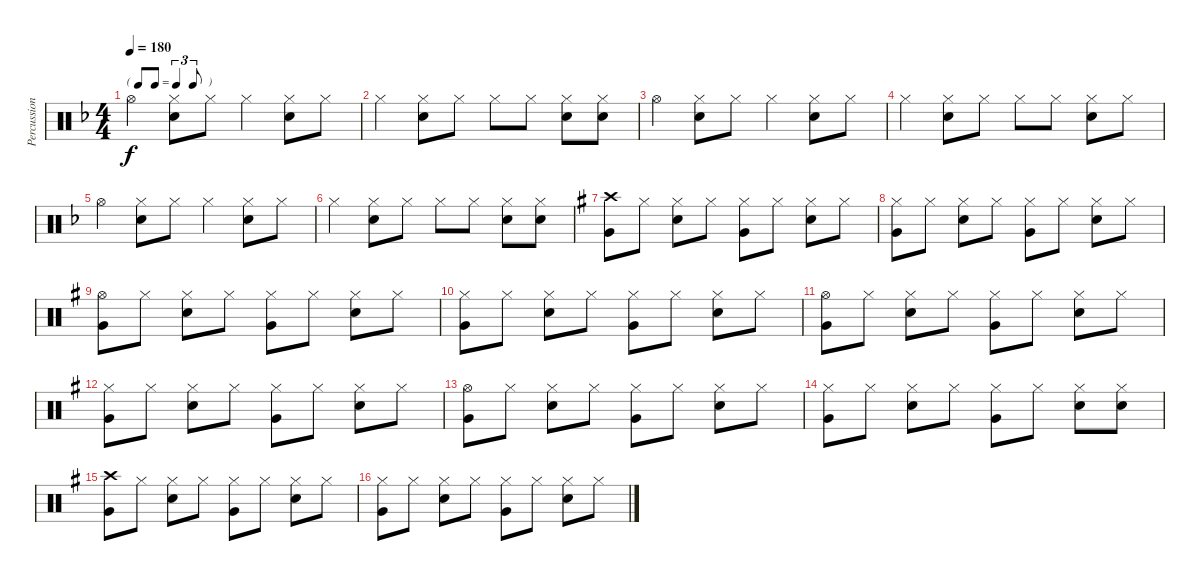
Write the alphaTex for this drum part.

\track ("Percussion" "Percussion") {instrument percussion}
\staff {score}
\articulation defaults
\ts (4 4)
\tf triplet8th
\tempo 180
\clef neutral
\ks f "Hi-Hat (open)".4{dy f}
("Hi-Hat (closed)" "Snare (hit) 2").8 "Hi-Hat (closed)".8 "Hi-Hat (closed)".4 ("Hi-Hat (closed)" "Snare (hit) 2").8 "Hi-Hat (closed)".8 |
"Hi-Hat (closed)".4 ("Hi-Hat (closed)" "Snare (hit) 2").8 "Hi-Hat (closed)".8 "Hi-Hat (closed)".8 "Hi-Hat (closed)".8 ("Hi-Hat (closed)" "Snare (hit) 2").8 ("Hi-Hat (closed)" "Snare (hit) 2").8 |
"Hi-Hat (open)".4 ("Hi-Hat (closed)" "Snare (hit) 2").8 "Hi-Hat (closed)".8 "Hi-Hat (closed)".4 ("Hi-Hat (closed)" "Snare (hit) 2").8 "Hi-Hat (closed)".8 |
"Hi-Hat (closed)".4 ("Hi-Hat (closed)" "Snare (hit) 2").8 "Hi-Hat (closed)".8 "Hi-Hat (closed)".8 "Hi-Hat (closed)".8 ("Hi-Hat (closed)" "Snare (hit) 2").8 "Hi-Hat (closed)".8 |
"Hi-Hat (open)".4 ("Hi-Hat (closed)" "Snare (hit) 2").8 "Hi-Hat (closed)".8 "Hi-Hat (closed)".4 ("Hi-Hat (closed)" "Snare (hit) 2").8 "Hi-Hat (closed)".8 |
"Hi-Hat (closed)".4 ("Hi-Hat (closed)" "Snare (hit) 2").8 "Hi-Hat (closed)".8 "Hi-Hat (closed)".8 "Hi-Hat (closed)".8 ("Hi-Hat (closed)" "Snare (hit) 2").8 ("Hi-Hat (closed)" "Snare (hit) 2").8 |
\ks g
("Crash high (hit)" "Very Low Tom (hit)").8 "Hi-Hat (closed)".8 ("Hi-Hat (closed)" "Snare (hit) 2").8 "Hi-Hat (closed)".8 ("Hi-Hat (closed)" "Very Low Tom (hit)").8 "Hi-Hat (closed)".8 ("Hi-Hat (closed)" "Snare (hit) 2").8 "Hi-Hat (closed)".8 |
("Hi-Hat (closed)" "Very Low Tom (hit)").8 "Hi-Hat (closed)".8 ("Hi-Hat (closed)" "Snare (hit) 2").8 "Hi-Hat (closed)".8 ("Hi-Hat (closed)" "Very Low Tom (hit)").8 "Hi-Hat (closed)".8 ("Hi-Hat (closed)" "Snare (hit) 2").8 "Hi-Hat (closed)".8 |
("Hi-Hat (open)" "Very Low Tom (hit)").8 "Hi-Hat (closed)".8 ("Hi-Hat (closed)" "Snare (hit) 2").8 "Hi-Hat (closed)".8 ("Hi-Hat (closed)" "Very Low Tom (hit)").8 "Hi-Hat (closed)".8 ("Hi-Hat (closed)" "Snare (hit) 2").8 "Hi-Hat (closed)".8 |
("Hi-Hat (closed)" "Very Low Tom (hit)").8 "Hi-Hat (closed)".8 ("Hi-Hat (closed)" "Snare (hit) 2").8 "Hi-Hat (closed)".8 ("Hi-Hat (closed)" "Very Low Tom (hit)").8 "Hi-Hat (closed)".8 ("Hi-Hat (closed)" "Snare (hit) 2").8 "Hi-Hat (closed)".8 |
("Hi-Hat (open)" "Very Low Tom (hit)").8 "Hi-Hat (closed)".8 ("Hi-Hat (closed)" "Snare (hit) 2").8 "Hi-Hat (closed)".8 ("Hi-Hat (closed)" "Very Low Tom (hit)").8 "Hi-Hat (closed)".8 ("Hi-Hat (closed)" "Snare (hit) 2").8 "Hi-Hat (closed)".8 |
("Hi-Hat (closed)" "Very Low Tom (hit)").8 "Hi-Hat (closed)".8 ("Hi-Hat (closed)" "Snare (hit) 2").8 "Hi-Hat (closed)".8 ("Hi-Hat (closed)" "Very Low Tom (hit)").8 "Hi-Hat (closed)".8 ("Hi-Hat (closed)" "Snare (hit) 2").8 "Hi-Hat (closed)".8 |
("Hi-Hat (open)" "Very Low Tom (hit)").8 "Hi-Hat (closed)".8 ("Hi-Hat (closed)" "Snare (hit) 2").8 "Hi-Hat (closed)".8 ("Hi-Hat (closed)" "Very Low Tom (hit)").8 "Hi-Hat (closed)".8 ("Hi-Hat (closed)" "Snare (hit) 2").8 "Hi-Hat (closed)".8 |
("Hi-Hat (closed)" "Very Low Tom (hit)").8 "Hi-Hat (closed)".8 ("Hi-Hat (closed)" "Snare (hit) 2").8 "Hi-Hat (closed)".8 ("Hi-Hat (closed)" "Very Low Tom (hit)").8 "Hi-Hat (closed)".8 ("Hi-Hat (closed)" "Snare (hit) 2").8 ("Hi-Hat (closed)" "Snare (hit) 2").8 |
("Crash high (hit)" "Very Low Tom (hit)").8 "Hi-Hat (closed)".8 ("Hi-Hat (closed)" "Snare (hit) 2").8 "Hi-Hat (closed)".8 ("Hi-Hat (closed)" "Very Low Tom (hit)").8 "Hi-Hat (closed)".8 ("Hi-Hat (closed)" "Snare (hit) 2").8 "Hi-Hat (closed)".8 |
("Hi-Hat (closed)" "Very Low Tom (hit)").8 "Hi-Hat (closed)".8 ("Hi-Hat (closed)" "Snare (hit) 2").8 "Hi-Hat (closed)".8 ("Hi-Hat (closed)" "Very Low Tom (hit)").8 "Hi-Hat (closed)".8 ("Hi-Hat (closed)" "Snare (hit) 2").8 "Hi-Hat (closed)".8
